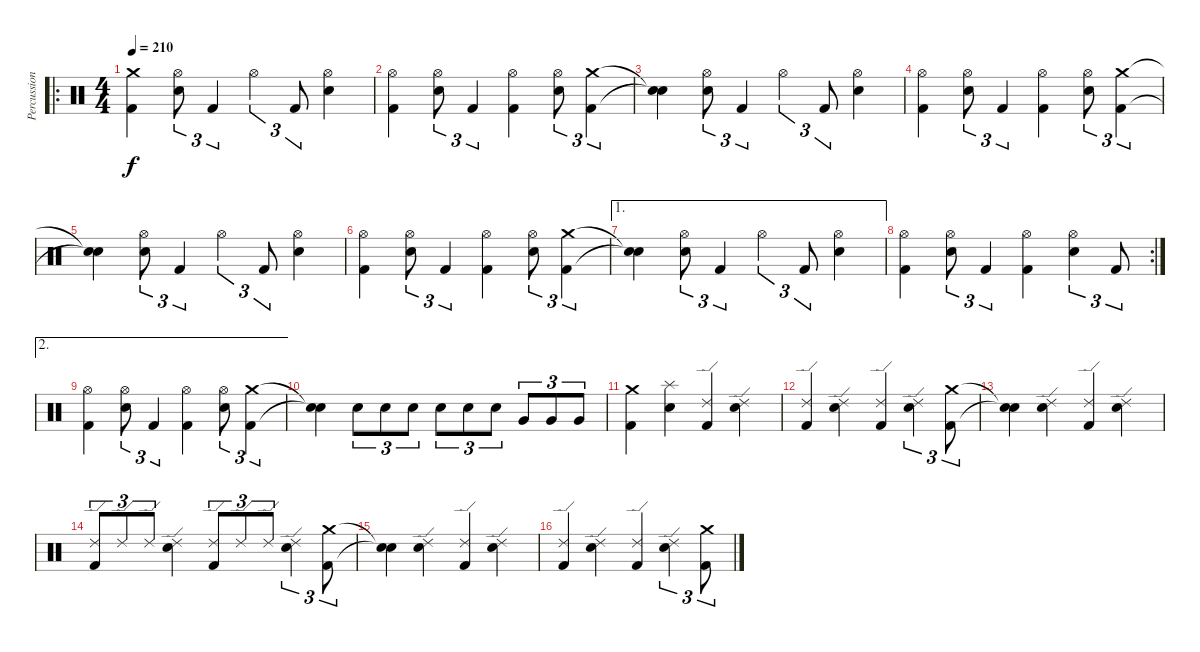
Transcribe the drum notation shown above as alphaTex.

\track ("Percussions" "Percussion") {instrument percussion}
\staff {score}
\articulation defaults
\ro
\ts (4 4)
\tempo 210
\clef neutral
\ks c
("Crash medium (hit)" "Kick (hit) 2").4{dy f} ("Snare (hit) 2" "Hi-Hat (open)").8{tu (3 2)} "Kick (hit) 2".4{tu (3 2)} "Hi-Hat (open)".4{tu (3 2)} "Kick (hit) 2".8{tu (3 2)} ("Snare (hit) 2" "Hi-Hat (open)").4 |
("Hi-Hat (open)" "Kick (hit) 2").4 ("Snare (hit) 2" "Hi-Hat (open)").8{tu (3 2)} "Kick (hit) 2".4{tu (3 2)} ("Hi-Hat (open)" "Kick (hit) 2").4 ("Snare (hit) 2" "Hi-Hat (open)").8{tu (3 2)} ("Crash medium (hit)" "Kick (hit) 2").4{tu (3 2)} |
("Snare (hit)"{t} "Snare (hit)"{t}).4 ("Snare (hit) 2" "Hi-Hat (open)").8{tu (3 2)} "Kick (hit) 2".4{tu (3 2)} "Hi-Hat (open)".4{tu (3 2)} "Kick (hit) 2".8{tu (3 2)} ("Snare (hit) 2" "Hi-Hat (open)").4 |
("Hi-Hat (open)" "Kick (hit) 2").4 ("Snare (hit) 2" "Hi-Hat (open)").8{tu (3 2)} "Kick (hit) 2".4{tu (3 2)} ("Hi-Hat (open)" "Kick (hit) 2").4 ("Snare (hit) 2" "Hi-Hat (open)").8{tu (3 2)} ("Crash medium (hit)" "Kick (hit) 2").4{tu (3 2)} |
("Snare (hit)"{t} "Snare (hit)"{t}).4 ("Snare (hit) 2" "Hi-Hat (open)").8{tu (3 2)} "Kick (hit) 2".4{tu (3 2)} "Hi-Hat (open)".4{tu (3 2)} "Kick (hit) 2".8{tu (3 2)} ("Snare (hit) 2" "Hi-Hat (open)").4 |
("Hi-Hat (open)" "Kick (hit) 2").4 ("Snare (hit) 2" "Hi-Hat (open)").8{tu (3 2)} "Kick (hit) 2".4{tu (3 2)} ("Hi-Hat (open)" "Kick (hit) 2").4 ("Snare (hit) 2" "Hi-Hat (open)").8{tu (3 2)} ("Crash medium (hit)" "Kick (hit) 2").4{tu (3 2)} |
\ae 1
("Snare (hit)"{t} "Snare (hit)"{t}).4 ("Snare (hit) 2" "Hi-Hat (open)").8{tu (3 2)} "Kick (hit) 2".4{tu (3 2)} "Hi-Hat (open)".4{tu (3 2)} "Kick (hit) 2".8{tu (3 2)} ("Snare (hit) 2" "Hi-Hat (open)").4 |
\rc 2
("Hi-Hat (open)" "Kick (hit) 2").4 ("Snare (hit) 2" "Hi-Hat (open)").8{tu (3 2)} "Kick (hit) 2".4{tu (3 2)} ("Hi-Hat (open)" "Kick (hit) 2").4 ("Snare (hit) 2" "Hi-Hat (open)").4{tu (3 2)} "Kick (hit) 2".8{tu (3 2)} |
\ae 2
("Hi-Hat (open)" "Kick (hit) 2").4 ("Snare (hit) 2" "Hi-Hat (open)").8{tu (3 2)} "Kick (hit) 2".4{tu (3 2)} ("Hi-Hat (open)" "Kick (hit) 2").4 ("Snare (hit) 2" "Hi-Hat (open)").8{tu (3 2)} ("Crash medium (hit)" "Kick (hit) 2").4{tu (3 2)} |
("Snare (hit)"{t} "Snare (hit)"{t}).4 "Snare (hit) 2".8{tu (3 2)} "Snare (hit) 2".8{tu (3 2)} "Snare (hit) 2".8{tu (3 2)} "Snare (hit) 2".8{tu (3 2)} "Snare (hit) 2".8{tu (3 2)} "Snare (hit) 2".8{tu (3 2)} "Very Low Tom (hit)".8{tu (3 2)} "Very Low Tom (hit)".8{tu (3 2)} "Very Low Tom (hit)".8{tu (3 2)} |
("Crash medium (hit)" "Kick (hit) 2").4 ("Splash (hit)" "Snare (hit) 2").4 ("Ride (edge) 2" "Kick (hit) 2").4 ("Ride (edge) 2" "Snare (hit) 2").4 |
("Ride (edge) 2" "Kick (hit) 2").4 ("Ride (edge) 2" "Snare (hit) 2").4 ("Ride (edge) 2" "Kick (hit) 2").4 ("Ride (edge) 2" "Snare (hit) 2").4{tu (3 2)} ("Crash medium (hit)" "Kick (hit) 2").8{tu (3 2)} |
("Snare (hit)"{t} "Snare (hit)"{t}).4 ("Ride (edge) 2" "Snare (hit) 2").4 ("Ride (edge) 2" "Kick (hit) 2").4 ("Ride (edge) 2" "Snare (hit) 2").4 |
("Ride (edge) 2" "Kick (hit) 2").8{tu (3 2)} "Ride (edge) 2".8{tu (3 2)} "Ride (edge) 2".8{tu (3 2)} ("Ride (edge) 2" "Snare (hit) 2").4 ("Ride (edge) 2" "Kick (hit) 2").8{tu (3 2)} "Ride (edge) 2".8{tu (3 2)} "Ride (edge) 2".8{tu (3 2)} ("Ride (edge) 2" "Snare (hit) 2").4{tu (3 2)} ("Crash medium (hit)" "Kick (hit) 2").8{tu (3 2)} |
("Snare (hit)"{t} "Snare (hit)"{t}).4 ("Ride (edge) 2" "Snare (hit) 2").4 ("Ride (edge) 2" "Kick (hit) 2").4 ("Ride (edge) 2" "Snare (hit) 2").4 |
("Ride (edge) 2" "Kick (hit) 2").4 ("Ride (edge) 2" "Snare (hit) 2").4 ("Ride (edge) 2" "Kick (hit) 2").4 ("Ride (edge) 2" "Snare (hit) 2").4{tu (3 2)} ("Crash medium (hit)" "Kick (hit) 2").8{tu (3 2)}
